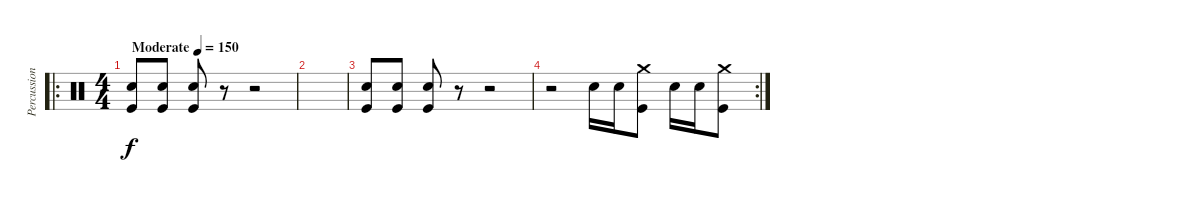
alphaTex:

\track ("Percussion" "Percussion") {instrument percussion}
\staff {score}
\articulation defaults
\ro
\ts (4 4)
\tempo (150 "Moderate")
\clef neutral
\ks c
("Snare (hit) 2" "Kick (hit)").8{dy f} ("Snare (hit) 2" "Kick (hit)").8 ("Snare (hit) 2" "Kick (hit)").8 r.8 r.2 |
|
("Snare (hit) 2" "Kick (hit)").8 ("Snare (hit) 2" "Kick (hit)").8 ("Snare (hit) 2" "Kick (hit)").8 r.8 r.2 |
\rc 2
r.2 "Snare (hit) 2".16 "Snare (hit) 2".16 ("Crash medium (hit)" "Kick (hit)").8 "Snare (hit) 2".16 "Snare (hit) 2".16 ("Crash medium (hit)" "Kick (hit)").8
